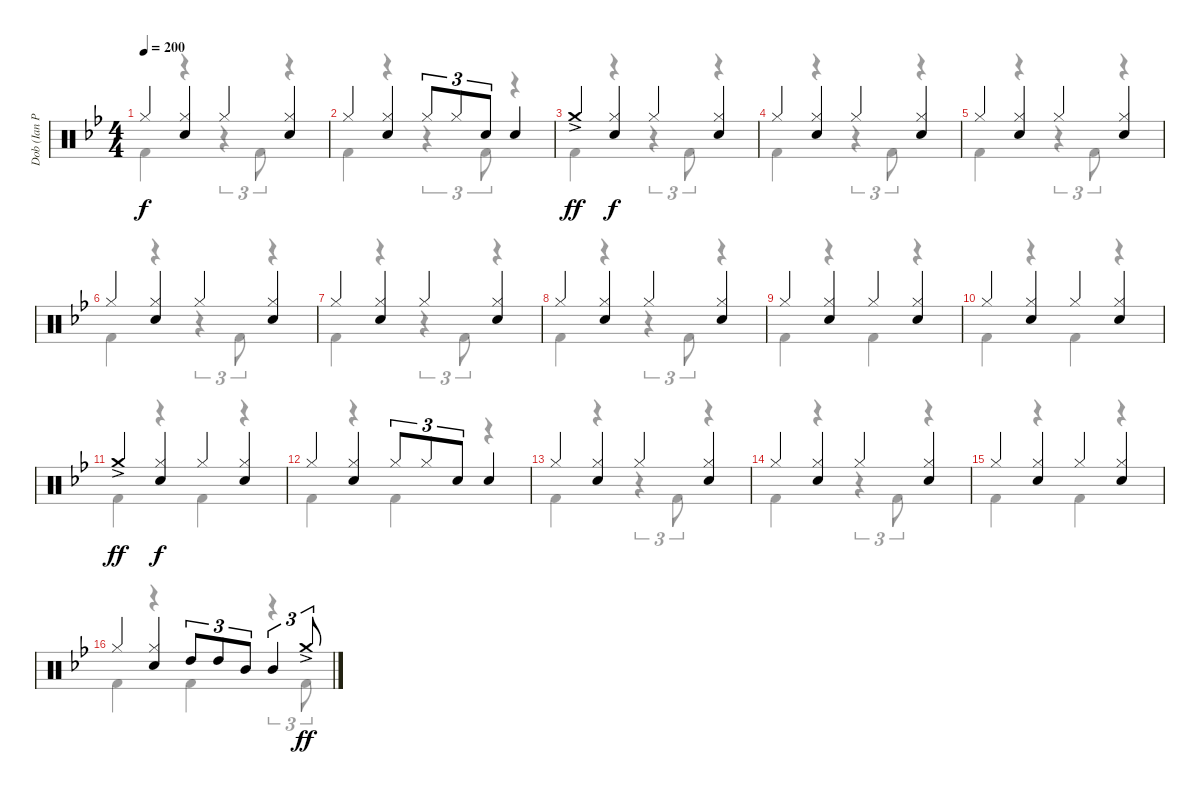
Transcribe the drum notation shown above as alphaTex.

\track ("Dob (Ian Paice)" "Dob (Ian P") {instrument percussion}
\staff {score}
\articulation defaults
\voice
\ts (4 4)
\tempo 200
\clef neutral
\ks bb "Hi-Hat (closed)".4{dy f}
("Hi-Hat (closed)" "Electric Snare (hit)").4 "Hi-Hat (closed)".4 ("Hi-Hat (closed)" "Electric Snare (hit)").4 |
"Hi-Hat (closed)".4 ("Hi-Hat (closed)" "Electric Snare (hit)").4 "Hi-Hat (closed)".8{tu (3 2)} "Hi-Hat (closed)".8{tu (3 2)} "Electric Snare (hit)".8{tu (3 2)} "Electric Snare (hit)".4 |
"Crash medium (hit)"{ac}.4{dy ff} ("Hi-Hat (closed)" "Electric Snare (hit)").4{dy f} "Hi-Hat (closed)".4 ("Hi-Hat (closed)" "Electric Snare (hit)").4 |
"Hi-Hat (closed)".4 ("Hi-Hat (closed)" "Electric Snare (hit)").4 "Hi-Hat (closed)".4 ("Hi-Hat (closed)" "Electric Snare (hit)").4 |
"Hi-Hat (closed)".4 ("Hi-Hat (closed)" "Electric Snare (hit)").4 "Hi-Hat (closed)".4 ("Hi-Hat (closed)" "Electric Snare (hit)").4 |
"Hi-Hat (closed)".4 ("Hi-Hat (closed)" "Electric Snare (hit)").4 "Hi-Hat (closed)".4 ("Hi-Hat (closed)" "Electric Snare (hit)").4 |
"Hi-Hat (closed)".4 ("Hi-Hat (closed)" "Electric Snare (hit)").4 "Hi-Hat (closed)".4 ("Hi-Hat (closed)" "Electric Snare (hit)").4 |
"Hi-Hat (closed)".4 ("Hi-Hat (closed)" "Electric Snare (hit)").4 "Hi-Hat (closed)".4 ("Hi-Hat (closed)" "Electric Snare (hit)").4 |
"Hi-Hat (closed)".4 ("Hi-Hat (closed)" "Electric Snare (hit)").4 "Hi-Hat (closed)".4 ("Hi-Hat (closed)" "Electric Snare (hit)").4 |
"Hi-Hat (closed)".4 ("Hi-Hat (closed)" "Electric Snare (hit)").4 "Hi-Hat (closed)".4 ("Hi-Hat (closed)" "Electric Snare (hit)").4 |
"Crash medium (hit)"{ac}.4{dy ff} ("Hi-Hat (closed)" "Electric Snare (hit)").4{dy f} "Hi-Hat (closed)".4 ("Hi-Hat (closed)" "Electric Snare (hit)").4 |
"Hi-Hat (closed)".4 ("Hi-Hat (closed)" "Electric Snare (hit)").4 "Hi-Hat (closed)".8{tu (3 2)} "Hi-Hat (closed)".8{tu (3 2)} "Electric Snare (hit)".8{tu (3 2)} "Electric Snare (hit)".4 |
"Hi-Hat (closed)".4 ("Hi-Hat (closed)" "Electric Snare (hit)").4 "Hi-Hat (closed)".4 ("Hi-Hat (closed)" "Electric Snare (hit)").4 |
"Hi-Hat (closed)".4 ("Hi-Hat (closed)" "Electric Snare (hit)").4 "Hi-Hat (closed)".4 ("Hi-Hat (closed)" "Electric Snare (hit)").4 |
"Hi-Hat (closed)".4 ("Hi-Hat (closed)" "Electric Snare (hit)").4 "Hi-Hat (closed)".4 ("Hi-Hat (closed)" "Electric Snare (hit)").4 |
"Hi-Hat (closed)".4 ("Hi-Hat (closed)" "Electric Snare (hit)").4 "High Tom (hit)".8{tu (3 2)} "High Tom (hit)".8{tu (3 2)} "Mid Tom (hit)".8{tu (3 2)} "Mid Tom (hit)".4{tu (3 2)} "Crash medium (hit)"{ac}.8{tu (3 2) dy ff}
\voice
\clef neutral
\ottava regular
\simile none
\ks bb "Kick (hit) 2".4{dy f}
r.4 r.4{tu (3 2)} "Kick (hit) 2".8{tu (3 2)} r.4 |
"Kick (hit) 2".4 r.4 r.4{tu (3 2)} "Kick (hit) 2".8{tu (3 2)} r.4 |
"Kick (hit) 2".4 r.4 r.4{tu (3 2)} "Kick (hit) 2".8{tu (3 2)} r.4 |
"Kick (hit) 2".4 r.4 r.4{tu (3 2)} "Kick (hit) 2".8{tu (3 2)} r.4 |
"Kick (hit) 2".4 r.4 r.4{tu (3 2)} "Kick (hit) 2".8{tu (3 2)} r.4 |
"Kick (hit) 2".4 r.4 r.4{tu (3 2)} "Kick (hit) 2".8{tu (3 2)} r.4 |
"Kick (hit) 2".4 r.4 r.4{tu (3 2)} "Kick (hit) 2".8{tu (3 2)} r.4 |
"Kick (hit) 2".4 r.4 r.4{tu (3 2)} "Kick (hit) 2".8{tu (3 2)} r.4 |
"Kick (hit) 2".4 r.4 "Kick (hit) 2".4 r.4 |
"Kick (hit) 2".4 r.4 "Kick (hit) 2".4 r.4 |
"Kick (hit) 2".4 r.4 "Kick (hit) 2".4 r.4 |
"Kick (hit) 2".4 r.4 "Kick (hit) 2".4 r.4 |
"Kick (hit) 2".4 r.4 r.4{tu (3 2)} "Kick (hit) 2".8{tu (3 2)} r.4 |
"Kick (hit) 2".4 r.4 r.4{tu (3 2)} "Kick (hit) 2".8{tu (3 2)} r.4 |
"Kick (hit) 2".4 r.4 "Kick (hit) 2".4 r.4 |
"Kick (hit) 2".4 r.4 "Kick (hit) 2".4 r.4{tu (3 2)} "Kick (hit) 2".8{tu (3 2)}
